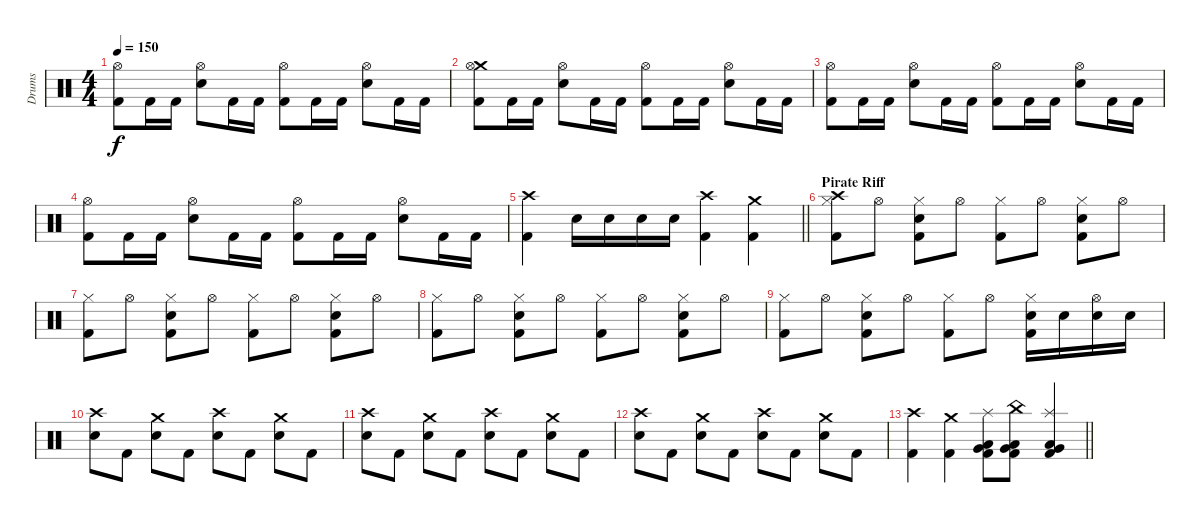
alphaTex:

\track ("Drums" "Drums") {instrument percussion}
\staff {score}
\articulation defaults
\ts (4 4)
\tempo 150
\clef neutral
\ks c
("Hi-Hat (open)" "Kick (hit) 2").8{dy f} "Kick (hit) 2".16 "Kick (hit) 2".16 ("Hi-Hat (open)" "Snare (hit) 2").8 "Kick (hit) 2".16 "Kick (hit) 2".16 ("Hi-Hat (open)" "Kick (hit) 2").8 "Kick (hit) 2".16 "Kick (hit) 2".16 ("Hi-Hat (open)" "Snare (hit) 2").8 "Kick (hit) 2".16 "Kick (hit) 2".16 |
("Crash medium (hit)" "Hi-Hat (open)" "Kick (hit) 2").8 "Kick (hit) 2".16 "Kick (hit) 2".16 ("Hi-Hat (open)" "Snare (hit) 2").8 "Kick (hit) 2".16 "Kick (hit) 2".16 ("Hi-Hat (open)" "Kick (hit) 2").8 "Kick (hit) 2".16 "Kick (hit) 2".16 ("Hi-Hat (open)" "Snare (hit) 2").8 "Kick (hit) 2".16 "Kick (hit) 2".16 |
("Hi-Hat (open)" "Kick (hit) 2").8 "Kick (hit) 2".16 "Kick (hit) 2".16 ("Hi-Hat (open)" "Snare (hit) 2").8 "Kick (hit) 2".16 "Kick (hit) 2".16 ("Hi-Hat (open)" "Kick (hit) 2").8 "Kick (hit) 2".16 "Kick (hit) 2".16 ("Hi-Hat (open)" "Snare (hit) 2").8 "Kick (hit) 2".16 "Kick (hit) 2".16 |
("Hi-Hat (open)" "Kick (hit) 2").8 "Kick (hit) 2".16 "Kick (hit) 2".16 ("Hi-Hat (open)" "Snare (hit) 2").8 "Kick (hit) 2".16 "Kick (hit) 2".16 ("Hi-Hat (open)" "Kick (hit) 2").8 "Kick (hit) 2".16 "Kick (hit) 2".16 ("Hi-Hat (open)" "Snare (hit) 2").8 "Kick (hit) 2".16 "Kick (hit) 2".16 |
\barLineRight lightlight
("Crash high (hit)" "Kick (hit) 2").4 "Snare (hit) 2".16 "Snare (hit) 2".16 "Snare (hit) 2".16 "Snare (hit) 2".16 ("Crash high (hit)" "Kick (hit) 2").4 ("Crash medium (hit)" "Kick (hit) 2").4 |
\section ("" "Pirate Riff")
("Crash high (hit)" "Hi-Hat (closed)" "Kick (hit) 2").8 "Hi-Hat (open)".8 ("Hi-Hat (closed)" "Snare (hit) 2" "Kick (hit) 2").8 "Hi-Hat (open)".8 ("Hi-Hat (closed)" "Kick (hit) 2").8 "Hi-Hat (open)".8 ("Hi-Hat (closed)" "Snare (hit) 2" "Kick (hit) 2").8 "Hi-Hat (open)".8 |
("Hi-Hat (closed)" "Kick (hit) 2").8 "Hi-Hat (open)".8 ("Hi-Hat (closed)" "Snare (hit) 2" "Kick (hit) 2").8 "Hi-Hat (open)".8 ("Hi-Hat (closed)" "Kick (hit) 2").8 "Hi-Hat (open)".8 ("Hi-Hat (closed)" "Snare (hit) 2" "Kick (hit) 2").8 "Hi-Hat (open)".8 |
("Hi-Hat (closed)" "Kick (hit) 2").8 "Hi-Hat (open)".8 ("Hi-Hat (closed)" "Snare (hit) 2" "Kick (hit) 2").8 "Hi-Hat (open)".8 ("Hi-Hat (closed)" "Kick (hit) 2").8 "Hi-Hat (open)".8 ("Hi-Hat (closed)" "Snare (hit) 2" "Kick (hit) 2").8 "Hi-Hat (open)".8 |
("Hi-Hat (closed)" "Kick (hit) 2").8 "Hi-Hat (open)".8 ("Hi-Hat (closed)" "Snare (hit) 2" "Kick (hit) 2").8 "Hi-Hat (open)".8 ("Hi-Hat (closed)" "Kick (hit) 2").8 "Hi-Hat (open)".8 ("Hi-Hat (closed)" "Snare (hit) 2" "Kick (hit) 2").16 "Snare (hit) 2".16 ("Hi-Hat (open)" "Snare (hit) 2").16 "Snare (hit) 2".16 |
("Crash high (hit)" "Snare (hit) 2").8 "Kick (hit) 2".8 ("Crash medium (hit)" "Snare (hit) 2").8 "Kick (hit) 2".8 ("Crash high (hit)" "Snare (hit) 2").8 "Kick (hit) 2".8 ("Crash medium (hit)" "Snare (hit) 2").8 "Kick (hit) 2".8 |
("Crash high (hit)" "Snare (hit) 2").8 "Kick (hit) 2".8 ("Crash medium (hit)" "Snare (hit) 2").8 "Kick (hit) 2".8 ("Crash high (hit)" "Snare (hit) 2").8 "Kick (hit) 2".8 ("Crash medium (hit)" "Snare (hit) 2").8 "Kick (hit) 2".8 |
("Crash high (hit)" "Snare (hit) 2").8 "Kick (hit) 2".8 ("Crash medium (hit)" "Snare (hit) 2").8 "Kick (hit) 2".8 ("Crash high (hit)" "Snare (hit) 2").8 "Kick (hit) 2".8 ("Crash medium (hit)" "Snare (hit) 2").8 "Kick (hit) 2".8 |
\barLineRight lightlight
("Crash high (hit)" "Kick (hit) 2").4 ("Crash medium (hit)" "Kick (hit) 2").4 ("Splash (hit)" "Very Low Tom (hit)" "Low Floor Tom (hit)" "Kick (hit) 2").8 ("China (hit)" "Very Low Tom (hit)" "Low Floor Tom (hit)" "Kick (hit) 2").8 ("Splash (hit)" "Very Low Tom (hit)" "Low Floor Tom (hit)" "Kick (hit) 2").4
